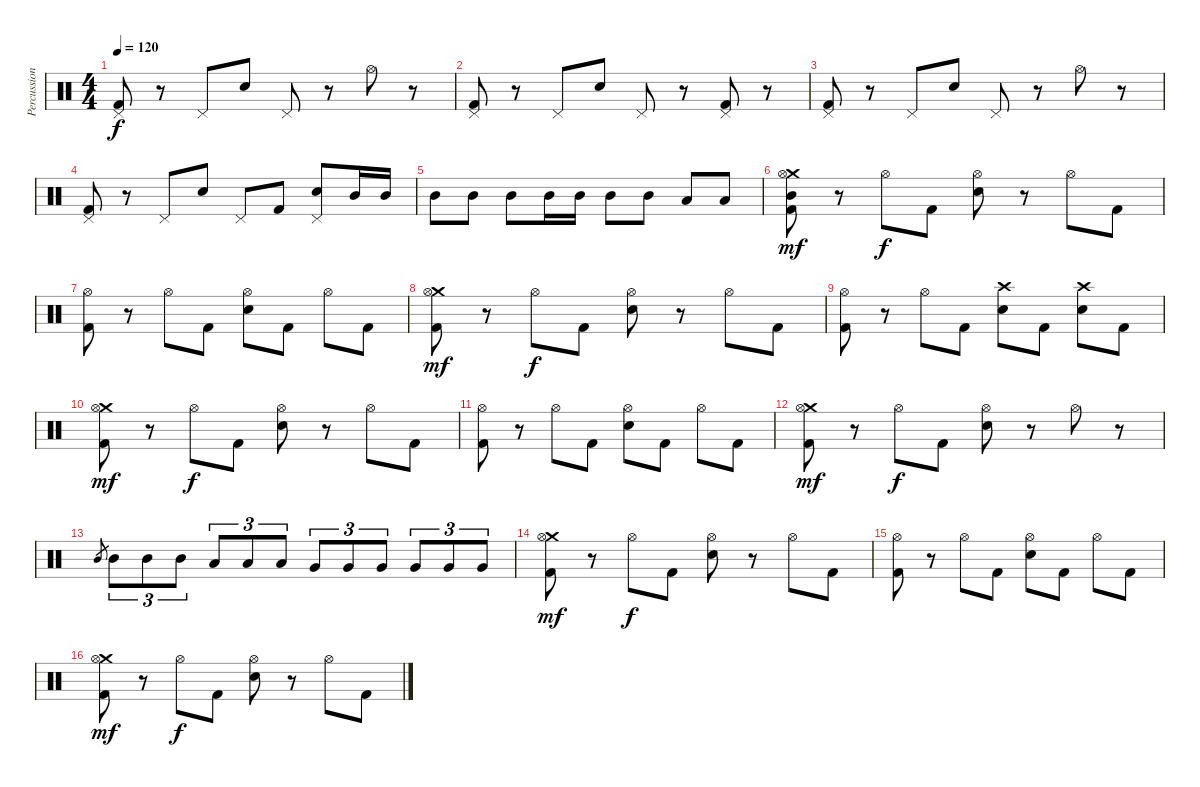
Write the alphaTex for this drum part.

\track ("Percussion" "Percussion") {instrument percussion}
\staff {score}
\articulation defaults
\ts (4 4)
\tempo 120
\clef neutral
\ks c
("Pedal Hi-Hat (hit)" "Kick (hit) 2").8{dy f} r.8 "Pedal Hi-Hat (hit)".8 "Electric Snare (hit)".8 "Pedal Hi-Hat (hit)".8 r.8 "Hi-Hat (open)".8 r.8 |
("Pedal Hi-Hat (hit)" "Kick (hit) 2").8 r.8 "Pedal Hi-Hat (hit)".8 "Electric Snare (hit)".8 "Pedal Hi-Hat (hit)".8 r.8 ("Pedal Hi-Hat (hit)" "Kick (hit) 2").8 r.8 |
("Pedal Hi-Hat (hit)" "Kick (hit) 2").8 r.8 "Pedal Hi-Hat (hit)".8 "Electric Snare (hit)".8 "Pedal Hi-Hat (hit)".8 r.8 "Hi-Hat (open)".8 r.8 |
("Pedal Hi-Hat (hit)" "Kick (hit) 2").8 r.8 "Pedal Hi-Hat (hit)".8 "Electric Snare (hit)".8 "Pedal Hi-Hat (hit)".8 "Kick (hit) 2".8 ("Pedal Hi-Hat (hit)" "Electric Snare (hit)").8 "Mid Tom (hit)".16 "Mid Tom (hit)".16 |
"Mid Tom (hit)".8 "Mid Tom (hit)".8 "Mid Tom (hit)".8 "Mid Tom (hit)".16 "Mid Tom (hit)".16 "Mid Tom (hit)".8 "Mid Tom (hit)".8 "Low Tom (hit)".8 "Low Tom (hit)".8 |
("Crash medium (hit)" "Hi-Hat (open)" "Mid Tom (hit)" "Kick (hit) 2").8{dy mf} r.8 "Hi-Hat (open)".8{dy f} "Kick (hit) 2".8 ("Hi-Hat (open)" "Electric Snare (hit)").8 r.8 "Hi-Hat (open)".8 "Kick (hit) 2".8 |
("Hi-Hat (open)" "Kick (hit) 2").8 r.8 "Hi-Hat (open)".8 "Kick (hit) 2".8 ("Hi-Hat (open)" "Electric Snare (hit)").8 "Kick (hit) 2".8 "Hi-Hat (open)".8 "Kick (hit) 2".8 |
("Crash medium (hit)" "Hi-Hat (open)" "Kick (hit) 2").8{dy mf} r.8 "Hi-Hat (open)".8{dy f} "Kick (hit) 2".8 ("Hi-Hat (open)" "Electric Snare (hit)").8 r.8 "Hi-Hat (open)".8 "Kick (hit) 2".8 |
("Hi-Hat (open)" "Kick (hit) 2").8 r.8 "Hi-Hat (open)".8 "Kick (hit) 2".8 ("Crash high (hit)" "Electric Snare (hit)").8 "Kick (hit) 2".8 ("Crash high (hit)" "Electric Snare (hit)").8 "Kick (hit) 2".8 |
("Crash medium (hit)" "Hi-Hat (open)" "Kick (hit) 2").8{dy mf} r.8 "Hi-Hat (open)".8{dy f} "Kick (hit) 2".8 ("Hi-Hat (open)" "Electric Snare (hit)").8 r.8 "Hi-Hat (open)".8 "Kick (hit) 2".8 |
("Hi-Hat (open)" "Kick (hit) 2").8 r.8 "Hi-Hat (open)".8 "Kick (hit) 2".8 ("Hi-Hat (open)" "Electric Snare (hit)").8 "Kick (hit) 2".8 "Hi-Hat (open)".8 "Kick (hit) 2".8 |
("Crash medium (hit)" "Hi-Hat (open)" "Kick (hit) 2").8{dy mf} r.8 "Hi-Hat (open)".8{dy f} "Kick (hit) 2".8 ("Hi-Hat (open)" "Electric Snare (hit)").8 r.8 "Hi-Hat (open)".8 r.8 |
"Mid Tom (hit)".8{gr} "Mid Tom (hit)".8{tu (3 2)} "Mid Tom (hit)".8{tu (3 2)} "Mid Tom (hit)".8{tu (3 2)} "Low Tom (hit)".8{tu (3 2)} "Low Tom (hit)".8{tu (3 2)} "Low Tom (hit)".8{tu (3 2)} "Very Low Tom (hit)".8{tu (3 2)} "Very Low Tom (hit)".8{tu (3 2)} "Very Low Tom (hit)".8{tu (3 2)} "Very Low Tom (hit)".8{tu (3 2)} "Very Low Tom (hit)".8{tu (3 2)} "Very Low Tom (hit)".8{tu (3 2)} |
("Crash medium (hit)" "Hi-Hat (open)" "Kick (hit) 2").8{dy mf} r.8 "Hi-Hat (open)".8{dy f} "Kick (hit) 2".8 ("Hi-Hat (open)" "Electric Snare (hit)").8 r.8 "Hi-Hat (open)".8 "Kick (hit) 2".8 |
("Hi-Hat (open)" "Kick (hit) 2").8 r.8 "Hi-Hat (open)".8 "Kick (hit) 2".8 ("Hi-Hat (open)" "Electric Snare (hit)").8 "Kick (hit) 2".8 "Hi-Hat (open)".8 "Kick (hit) 2".8 |
("Crash medium (hit)" "Hi-Hat (open)" "Kick (hit) 2").8{dy mf} r.8 "Hi-Hat (open)".8{dy f} "Kick (hit) 2".8 ("Hi-Hat (open)" "Electric Snare (hit)").8 r.8 "Hi-Hat (open)".8 "Kick (hit) 2".8
